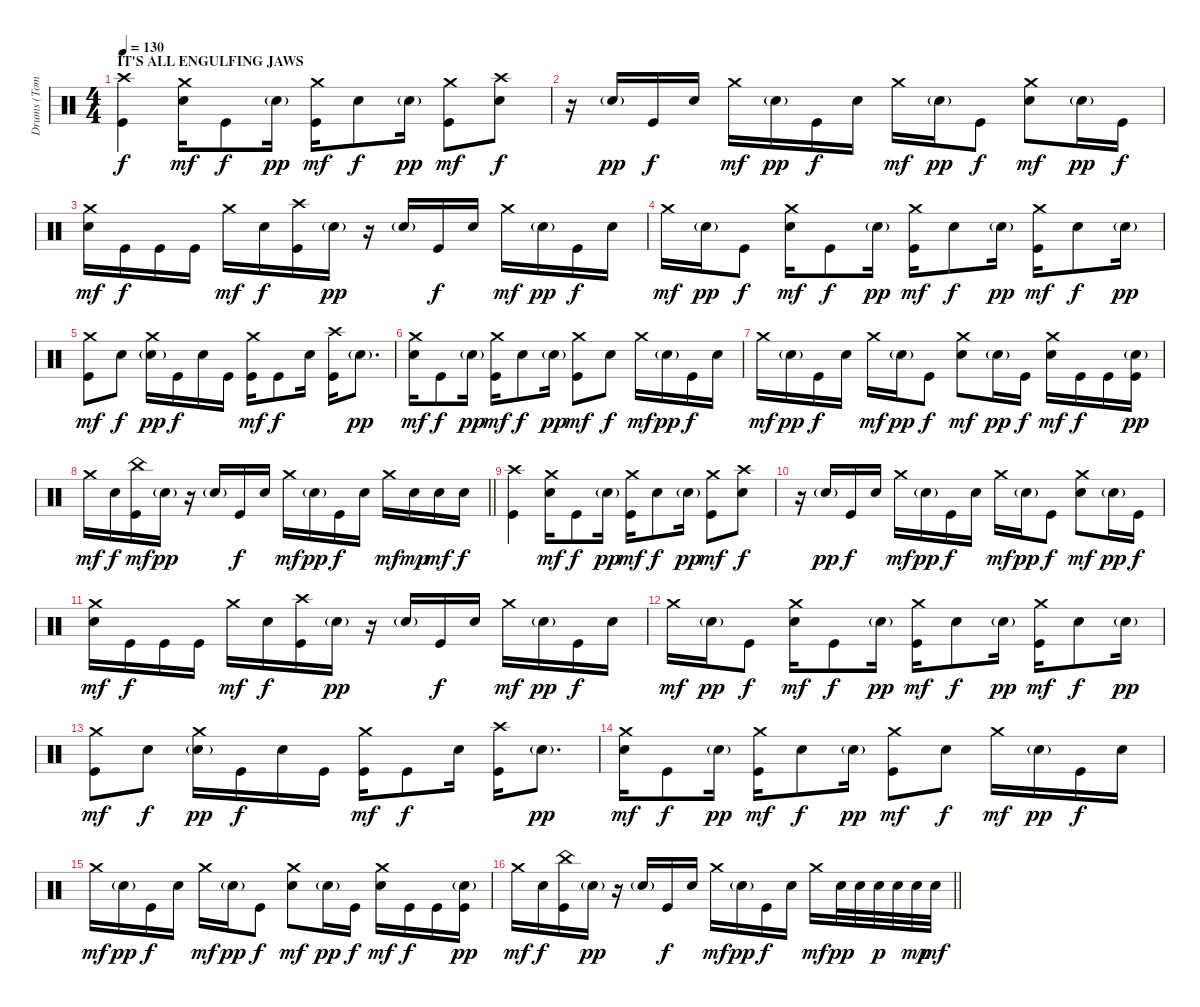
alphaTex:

\track ("Drums (Tomas Haake)" "Drums (Tom") {instrument percussion}
\staff {score}
\articulation defaults
\ts (4 4)
\section ("" "IT'S ALL ENGULFING JAWS")
\tempo 130
\clef neutral
\ks c
("Crash high (hit)" "Kick (hit)").4{dy f} ("Crash medium (hit)" "Electric Snare (hit)").16{dy mf} "Kick (hit)".8{dy f} "Electric Snare (hit)"{g}.16{dy pp} ("Crash medium (hit)" "Kick (hit)").16{dy mf} "Electric Snare (hit)".8{dy f} "Electric Snare (hit)"{g}.16{dy pp} ("Crash medium (hit)" "Kick (hit)").8{dy mf} ("Crash high (hit)" "Electric Snare (hit)").8{dy f} |
r.16 "Electric Snare (hit)"{g}.16{dy pp} "Kick (hit)".16{dy f} "Electric Snare (hit)".16 "Crash medium (hit)".16{dy mf} "Electric Snare (hit)"{g}.16{dy pp} "Kick (hit)".16{dy f} "Electric Snare (hit)".16 "Crash medium (hit)".16{dy mf} "Electric Snare (hit)"{g}.16{dy pp} "Kick (hit)".8{dy f} ("Crash medium (hit)" "Electric Snare (hit)").8{dy mf} "Electric Snare (hit)"{g}.16{dy pp} "Kick (hit)".16{dy f} |
("Crash medium (hit)" "Electric Snare (hit)").16{dy mf} "Kick (hit)".16{dy f} "Kick (hit)".16 "Kick (hit)".16 "Crash medium (hit)".16{dy mf} "Electric Snare (hit)".16{dy f} ("Crash high (hit)" "Kick (hit)").16 "Electric Snare (hit)"{g}.16{dy pp} r.16 "Electric Snare (hit)"{g}.16 "Kick (hit)".16{dy f} "Electric Snare (hit)".16 "Crash medium (hit)".16{dy mf} "Electric Snare (hit)"{g}.16{dy pp} "Kick (hit)".16{dy f} "Electric Snare (hit)".16 |
"Crash medium (hit)".16{dy mf} "Electric Snare (hit)"{g}.16{dy pp} "Kick (hit)".8{dy f} ("Crash medium (hit)" "Electric Snare (hit)").16{dy mf} "Kick (hit)".8{dy f} "Electric Snare (hit)"{g}.16{dy pp} ("Crash medium (hit)" "Kick (hit)").16{dy mf} "Electric Snare (hit)".8{dy f} "Electric Snare (hit)"{g}.16{dy pp} ("Crash medium (hit)" "Kick (hit)").16{dy mf} "Electric Snare (hit)".8{dy f} "Electric Snare (hit)"{g}.16{dy pp} |
("Crash medium (hit)" "Kick (hit)").8{dy mf} "Electric Snare (hit)".8{dy f} ("Crash medium (hit)" "Electric Snare (hit)"{g}).16{dy pp} "Kick (hit)".16{dy f} "Electric Snare (hit)".16 "Kick (hit)".16 ("Crash medium (hit)" "Kick (hit)").16{dy mf} "Kick (hit)".8{dy f} "Electric Snare (hit)".16 ("Crash high (hit)" "Kick (hit)").16 "Electric Snare (hit)"{g}.8{d dy pp} |
("Crash medium (hit)" "Electric Snare (hit)").16{dy mf} "Kick (hit)".8{dy f} "Electric Snare (hit)"{g}.16{dy pp} ("Crash medium (hit)" "Kick (hit)").16{dy mf} "Electric Snare (hit)".8{dy f} "Electric Snare (hit)"{g}.16{dy pp} ("Crash medium (hit)" "Kick (hit)").8{dy mf} "Electric Snare (hit)".8{dy f} "Crash medium (hit)".16{dy mf} "Electric Snare (hit)"{g}.16{dy pp} "Kick (hit)".16{dy f} "Electric Snare (hit)".16 |
"Crash medium (hit)".16{dy mf} "Electric Snare (hit)"{g}.16{dy pp} "Kick (hit)".16{dy f} "Electric Snare (hit)".16 "Crash medium (hit)".16{dy mf} "Electric Snare (hit)"{g}.16{dy pp} "Kick (hit)".8{dy f} ("Crash medium (hit)" "Electric Snare (hit)").8{dy mf} "Electric Snare (hit)"{g}.16{dy pp} "Kick (hit)".16{dy f} ("Crash medium (hit)" "Electric Snare (hit)").16{dy mf} "Kick (hit)".16{dy f} "Kick (hit)".16 ("Electric Snare (hit)"{g} "Kick (hit)").16{dy pp} |
\barLineRight lightlight "Crash medium (hit)".16{dy mf} "Electric Snare (hit)".16{dy f}
("China (hit)" "Kick (hit)").16{dy mf} "Electric Snare (hit)"{g}.16{dy pp} r.16 "Electric Snare (hit)"{g}.16 "Kick (hit)".16{dy f} "Electric Snare (hit)".16 "Crash medium (hit)".16{dy mf} "Electric Snare (hit)"{g}.16{dy pp} "Kick (hit)".16{dy f} "Electric Snare (hit)".16 "Crash medium (hit)".16{dy mf} "Electric Snare (hit)".16{dy mp} "Electric Snare (hit)".16{dy mf} "Electric Snare (hit)".16{dy f} |
("Crash high (hit)" "Kick (hit)").4 ("Crash medium (hit)" "Electric Snare (hit)").16{dy mf} "Kick (hit)".8{dy f} "Electric Snare (hit)"{g}.16{dy pp} ("Crash medium (hit)" "Kick (hit)").16{dy mf} "Electric Snare (hit)".8{dy f} "Electric Snare (hit)"{g}.16{dy pp} ("Crash medium (hit)" "Kick (hit)").8{dy mf} ("Crash high (hit)" "Electric Snare (hit)").8{dy f} |
r.16 "Electric Snare (hit)"{g}.16{dy pp} "Kick (hit)".16{dy f} "Electric Snare (hit)".16 "Crash medium (hit)".16{dy mf} "Electric Snare (hit)"{g}.16{dy pp} "Kick (hit)".16{dy f} "Electric Snare (hit)".16 "Crash medium (hit)".16{dy mf} "Electric Snare (hit)"{g}.16{dy pp} "Kick (hit)".8{dy f} ("Crash medium (hit)" "Electric Snare (hit)").8{dy mf} "Electric Snare (hit)"{g}.16{dy pp} "Kick (hit)".16{dy f} |
("Crash medium (hit)" "Electric Snare (hit)").16{dy mf} "Kick (hit)".16{dy f} "Kick (hit)".16 "Kick (hit)".16 "Crash medium (hit)".16{dy mf} "Electric Snare (hit)".16{dy f} ("Crash high (hit)" "Kick (hit)").16 "Electric Snare (hit)"{g}.16{dy pp} r.16 "Electric Snare (hit)"{g}.16 "Kick (hit)".16{dy f} "Electric Snare (hit)".16 "Crash medium (hit)".16{dy mf} "Electric Snare (hit)"{g}.16{dy pp} "Kick (hit)".16{dy f} "Electric Snare (hit)".16 |
"Crash medium (hit)".16{dy mf} "Electric Snare (hit)"{g}.16{dy pp} "Kick (hit)".8{dy f} ("Crash medium (hit)" "Electric Snare (hit)").16{dy mf} "Kick (hit)".8{dy f} "Electric Snare (hit)"{g}.16{dy pp} ("Crash medium (hit)" "Kick (hit)").16{dy mf} "Electric Snare (hit)".8{dy f} "Electric Snare (hit)"{g}.16{dy pp} ("Crash medium (hit)" "Kick (hit)").16{dy mf} "Electric Snare (hit)".8{dy f} "Electric Snare (hit)"{g}.16{dy pp} |
("Crash medium (hit)" "Kick (hit)").8{dy mf} "Electric Snare (hit)".8{dy f} ("Crash medium (hit)" "Electric Snare (hit)"{g}).16{dy pp} "Kick (hit)".16{dy f} "Electric Snare (hit)".16 "Kick (hit)".16 ("Crash medium (hit)" "Kick (hit)").16{dy mf} "Kick (hit)".8{dy f} "Electric Snare (hit)".16 ("Crash high (hit)" "Kick (hit)").16 "Electric Snare (hit)"{g}.8{d dy pp} |
("Crash medium (hit)" "Electric Snare (hit)").16{dy mf} "Kick (hit)".8{dy f} "Electric Snare (hit)"{g}.16{dy pp} ("Crash medium (hit)" "Kick (hit)").16{dy mf} "Electric Snare (hit)".8{dy f} "Electric Snare (hit)"{g}.16{dy pp} ("Crash medium (hit)" "Kick (hit)").8{dy mf} "Electric Snare (hit)".8{dy f} "Crash medium (hit)".16{dy mf} "Electric Snare (hit)"{g}.16{dy pp} "Kick (hit)".16{dy f} "Electric Snare (hit)".16 |
"Crash medium (hit)".16{dy mf} "Electric Snare (hit)"{g}.16{dy pp} "Kick (hit)".16{dy f} "Electric Snare (hit)".16 "Crash medium (hit)".16{dy mf} "Electric Snare (hit)"{g}.16{dy pp} "Kick (hit)".8{dy f} ("Crash medium (hit)" "Electric Snare (hit)").8{dy mf} "Electric Snare (hit)"{g}.16{dy pp} "Kick (hit)".16{dy f} ("Crash medium (hit)" "Electric Snare (hit)").16{dy mf} "Kick (hit)".16{dy f} "Kick (hit)".16 ("Electric Snare (hit)"{g} "Kick (hit)").16{dy pp} |
\barLineRight lightlight "Crash medium (hit)".16{dy mf} "Electric Snare (hit)".16{dy f}
("China (hit)" "Kick (hit)").16 "Electric Snare (hit)"{g}.16{dy pp} r.16 "Electric Snare (hit)"{g}.16 "Kick (hit)".16{dy f} "Electric Snare (hit)".16 "Crash medium (hit)".16{dy mf} "Electric Snare (hit)"{g}.16{dy pp} "Kick (hit)".16{dy f} "Electric Snare (hit)".16 "Crash medium (hit)".16{dy mf} "Electric Snare (hit)".32{dy pp} "Electric Snare (hit)".32 "Electric Snare (hit)".32{dy p} "Electric Snare (hit)".32 "Electric Snare (hit)".32{dy mp} "Electric Snare (hit)".32{dy mf}
